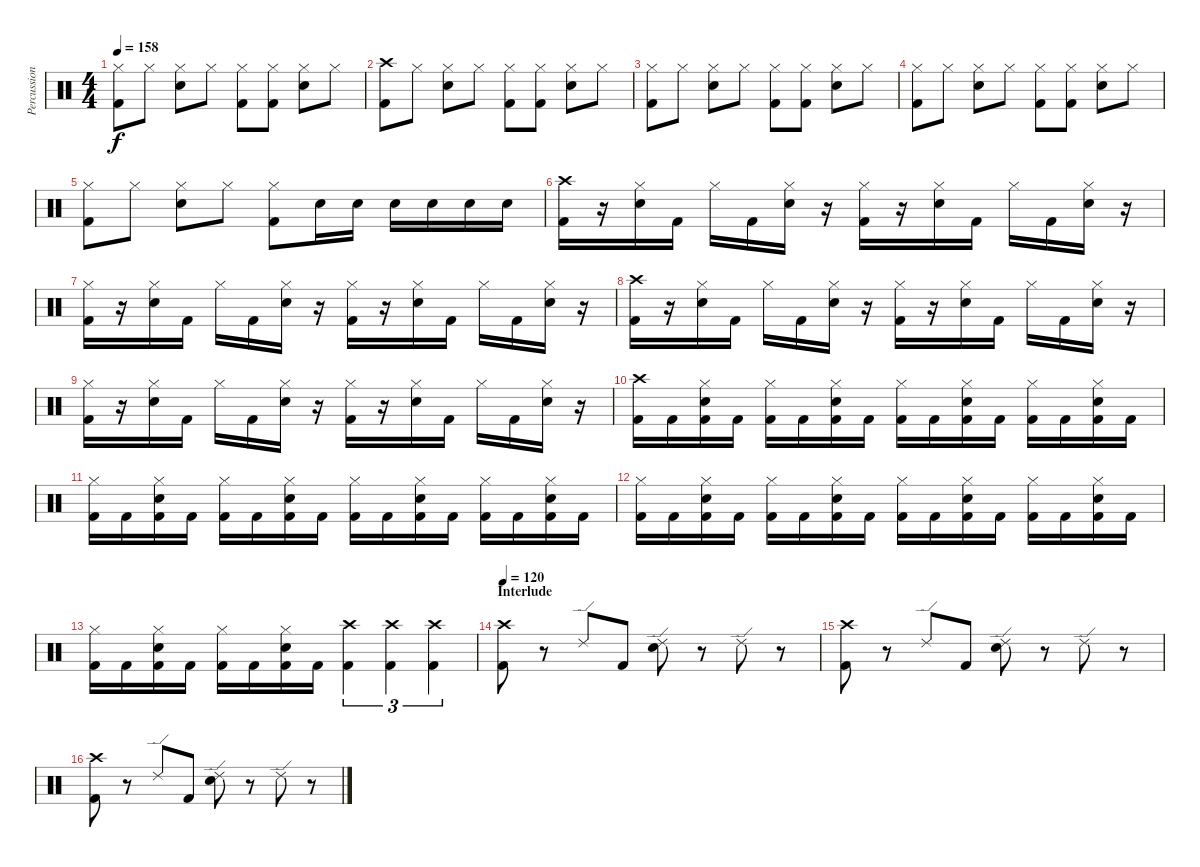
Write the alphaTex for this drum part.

\track ("Percussion" "Percussion") {instrument percussion}
\staff {score}
\articulation defaults
\ts (4 4)
\tempo 158
\clef neutral
\ks c
("Hi-Hat (closed)" "Kick (hit) 2").8{dy f} "Hi-Hat (closed)".8 ("Hi-Hat (closed)" "Snare (hit) 2").8 "Hi-Hat (closed)".8 ("Hi-Hat (closed)" "Kick (hit) 2").8 ("Hi-Hat (closed)" "Kick (hit) 2").8 ("Hi-Hat (closed)" "Snare (hit) 2").8 "Hi-Hat (closed)".8 |
("Crash high (hit)" "Kick (hit) 2").8 "Hi-Hat (closed)".8 ("Hi-Hat (closed)" "Snare (hit) 2").8 "Hi-Hat (closed)".8 ("Hi-Hat (closed)" "Kick (hit) 2").8 ("Hi-Hat (closed)" "Kick (hit) 2").8 ("Hi-Hat (closed)" "Snare (hit) 2").8 "Hi-Hat (closed)".8 |
("Hi-Hat (closed)" "Kick (hit) 2").8 "Hi-Hat (closed)".8 ("Hi-Hat (closed)" "Snare (hit) 2").8 "Hi-Hat (closed)".8 ("Hi-Hat (closed)" "Kick (hit) 2").8 ("Hi-Hat (closed)" "Kick (hit) 2").8 ("Hi-Hat (closed)" "Snare (hit) 2").8 "Hi-Hat (closed)".8 |
("Hi-Hat (closed)" "Kick (hit) 2").8 "Hi-Hat (closed)".8 ("Hi-Hat (closed)" "Snare (hit) 2").8 "Hi-Hat (closed)".8 ("Hi-Hat (closed)" "Kick (hit) 2").8 ("Hi-Hat (closed)" "Kick (hit) 2").8 ("Hi-Hat (closed)" "Snare (hit) 2").8 "Hi-Hat (closed)".8 |
("Hi-Hat (closed)" "Kick (hit) 2").8 "Hi-Hat (closed)".8 ("Hi-Hat (closed)" "Snare (hit) 2").8 "Hi-Hat (closed)".8 ("Hi-Hat (closed)" "Kick (hit) 2").8 "Snare (hit) 2".16 "Snare (hit) 2".16 "Snare (hit) 2".16 "Snare (hit) 2".16 "Snare (hit) 2".16 "Snare (hit) 2".16 |
("Crash high (hit)" "Kick (hit) 2").16 r.16 ("Hi-Hat (closed)" "Snare (hit) 2").16 "Kick (hit) 2".16 "Hi-Hat (closed)".16 "Kick (hit) 2".16 ("Hi-Hat (closed)" "Snare (hit) 2").16 r.16 ("Hi-Hat (closed)" "Kick (hit) 2").16 r.16 ("Hi-Hat (closed)" "Snare (hit) 2").16 "Kick (hit) 2".16 "Hi-Hat (closed)".16 "Kick (hit) 2".16 ("Hi-Hat (closed)" "Snare (hit) 2").16 r.16 |
("Hi-Hat (closed)" "Kick (hit) 2").16 r.16 ("Hi-Hat (closed)" "Snare (hit) 2").16 "Kick (hit) 2".16 "Hi-Hat (closed)".16 "Kick (hit) 2".16 ("Hi-Hat (closed)" "Snare (hit) 2").16 r.16 ("Hi-Hat (closed)" "Kick (hit) 2").16 r.16 ("Hi-Hat (closed)" "Snare (hit) 2").16 "Kick (hit) 2".16 "Hi-Hat (closed)".16 "Kick (hit) 2".16 ("Hi-Hat (closed)" "Snare (hit) 2").16 r.16 |
("Crash high (hit)" "Kick (hit) 2").16 r.16 ("Hi-Hat (closed)" "Snare (hit) 2").16 "Kick (hit) 2".16 "Hi-Hat (closed)".16 "Kick (hit) 2".16 ("Hi-Hat (closed)" "Snare (hit) 2").16 r.16 ("Hi-Hat (closed)" "Kick (hit) 2").16 r.16 ("Hi-Hat (closed)" "Snare (hit) 2").16 "Kick (hit) 2".16 "Hi-Hat (closed)".16 "Kick (hit) 2".16 ("Hi-Hat (closed)" "Snare (hit) 2").16 r.16 |
("Hi-Hat (closed)" "Kick (hit) 2").16 r.16 ("Hi-Hat (closed)" "Snare (hit) 2").16 "Kick (hit) 2".16 "Hi-Hat (closed)".16 "Kick (hit) 2".16 ("Hi-Hat (closed)" "Snare (hit) 2").16 r.16 ("Hi-Hat (closed)" "Kick (hit) 2").16 r.16 ("Hi-Hat (closed)" "Snare (hit) 2").16 "Kick (hit) 2".16 "Hi-Hat (closed)".16 "Kick (hit) 2".16 ("Hi-Hat (closed)" "Snare (hit) 2").16 r.16 |
("Crash high (hit)" "Kick (hit) 2").16 "Kick (hit) 2".16 ("Hi-Hat (closed)" "Snare (hit) 2" "Kick (hit) 2").16 "Kick (hit) 2".16 ("Hi-Hat (closed)" "Kick (hit) 2").16 "Kick (hit) 2".16 ("Hi-Hat (closed)" "Snare (hit) 2" "Kick (hit) 2").16 "Kick (hit) 2".16 ("Hi-Hat (closed)" "Kick (hit) 2").16 "Kick (hit) 2".16 ("Hi-Hat (closed)" "Snare (hit) 2" "Kick (hit) 2").16 "Kick (hit) 2".16 ("Hi-Hat (closed)" "Kick (hit) 2").16 "Kick (hit) 2".16 ("Hi-Hat (closed)" "Snare (hit) 2" "Kick (hit) 2").16 "Kick (hit) 2".16 |
("Hi-Hat (closed)" "Kick (hit) 2").16 "Kick (hit) 2".16 ("Hi-Hat (closed)" "Snare (hit) 2" "Kick (hit) 2").16 "Kick (hit) 2".16 ("Hi-Hat (closed)" "Kick (hit) 2").16 "Kick (hit) 2".16 ("Hi-Hat (closed)" "Snare (hit) 2" "Kick (hit) 2").16 "Kick (hit) 2".16 ("Hi-Hat (closed)" "Kick (hit) 2").16 "Kick (hit) 2".16 ("Hi-Hat (closed)" "Snare (hit) 2" "Kick (hit) 2").16 "Kick (hit) 2".16 ("Hi-Hat (closed)" "Kick (hit) 2").16 "Kick (hit) 2".16 ("Hi-Hat (closed)" "Snare (hit) 2" "Kick (hit) 2").16 "Kick (hit) 2".16 |
("Hi-Hat (closed)" "Kick (hit) 2").16 "Kick (hit) 2".16 ("Hi-Hat (closed)" "Snare (hit) 2" "Kick (hit) 2").16 "Kick (hit) 2".16 ("Hi-Hat (closed)" "Kick (hit) 2").16 "Kick (hit) 2".16 ("Hi-Hat (closed)" "Snare (hit) 2" "Kick (hit) 2").16 "Kick (hit) 2".16 ("Hi-Hat (closed)" "Kick (hit) 2").16 "Kick (hit) 2".16 ("Hi-Hat (closed)" "Snare (hit) 2" "Kick (hit) 2").16 "Kick (hit) 2".16 ("Hi-Hat (closed)" "Kick (hit) 2").16 "Kick (hit) 2".16 ("Hi-Hat (closed)" "Snare (hit) 2" "Kick (hit) 2").16 "Kick (hit) 2".16 |
("Hi-Hat (closed)" "Kick (hit) 2").16 "Kick (hit) 2".16 ("Hi-Hat (closed)" "Snare (hit) 2" "Kick (hit) 2").16 "Kick (hit) 2".16 ("Hi-Hat (closed)" "Kick (hit) 2").16 "Kick (hit) 2".16 ("Hi-Hat (closed)" "Snare (hit) 2" "Kick (hit) 2").16 "Kick (hit) 2".16 ("Crash high (hit)" "Kick (hit) 2").4{tu (3 2)} ("Crash high (hit)" "Kick (hit) 2").4{tu (3 2)} ("Crash high (hit)" "Kick (hit) 2").4{tu (3 2)} |
\section ("" "Interlude")
\tempo 120
("Crash high (hit)" "Kick (hit) 2").8 r.8 "Ride (edge) 2".8 "Kick (hit) 2".8 ("Ride (edge) 2" "Snare (hit) 2").8 r.8 "Ride (edge) 2".8 r.8 |
("Crash high (hit)" "Kick (hit) 2").8 r.8 "Ride (edge) 2".8 "Kick (hit) 2".8 ("Ride (edge) 2" "Snare (hit) 2").8 r.8 "Ride (edge) 2".8 r.8 |
("Crash high (hit)" "Kick (hit) 2").8 r.8 "Ride (edge) 2".8 "Kick (hit) 2".8 ("Ride (edge) 2" "Snare (hit) 2").8 r.8 "Ride (edge) 2".8 r.8
